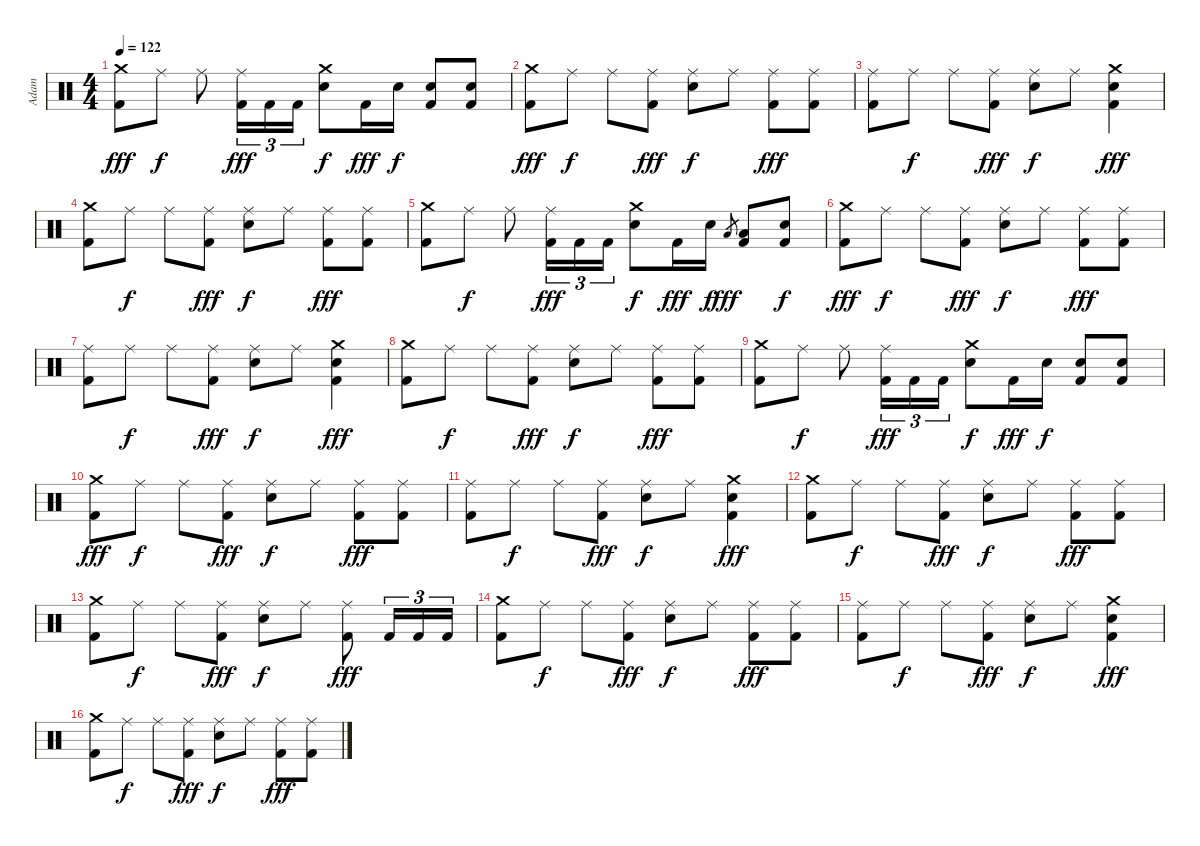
\track ("Adam" "Adam") {instrument percussion}
\staff {score}
\articulation defaults
\ts (4 4)
\tempo 122
\clef neutral
\ks c
("Crash medium (hit)" "Kick (hit) 2").8{dy fff} "Ride (middle)".8{dy f} "Ride (middle)".8 ("Ride (middle)" "Kick (hit) 2").16{tu (3 2) dy fff} "Kick (hit) 2".16{tu (3 2)} "Kick (hit) 2".16{tu (3 2)} ("Crash medium (hit)" "Snare (hit) 2").8{dy f} "Kick (hit) 2".16{dy fff} "Snare (hit) 2".16{dy f} ("Snare (hit) 2" "Kick (hit) 2").8 ("Snare (hit) 2" "Kick (hit) 2").8 |
("Crash medium (hit)" "Kick (hit) 2").8{dy fff} "Ride (middle)".8{dy f} "Ride (middle)".8 ("Ride (middle)" "Kick (hit) 2").8{dy fff} ("Ride (middle)" "Snare (hit) 2").8{dy f} "Ride (middle)".8 ("Ride (middle)" "Kick (hit) 2").8{dy fff} ("Ride (middle)" "Kick (hit) 2").8 |
("Ride (middle)" "Kick (hit) 2").8 "Ride (middle)".8{dy f} "Ride (middle)".8 ("Ride (middle)" "Kick (hit) 2").8{dy fff} ("Ride (middle)" "Snare (hit) 2").8{dy f} "Ride (middle)".8 ("Crash medium (hit)" "Snare (hit) 2" "Kick (hit) 2").4{dy fff} |
("Crash medium (hit)" "Kick (hit) 2").8 "Ride (middle)".8{dy f} "Ride (middle)".8 ("Ride (middle)" "Kick (hit) 2").8{dy fff} ("Ride (middle)" "Snare (hit) 2").8{dy f} "Ride (middle)".8 ("Ride (middle)" "Kick (hit) 2").8{dy fff} ("Ride (middle)" "Kick (hit) 2").8 |
("Crash medium (hit)" "Kick (hit) 2").8 "Ride (middle)".8{dy f} "Ride (middle)".8 ("Ride (middle)" "Kick (hit) 2").16{tu (3 2) dy fff} "Kick (hit) 2".16{tu (3 2)} "Kick (hit) 2".16{tu (3 2)} ("Crash medium (hit)" "Snare (hit) 2").8{dy f} "Kick (hit) 2".16{dy fff} "Snare (hit) 2".16{dy f} "Low Tom (hit)".8{gr dy fff} ("Low Tom (hit)" "Kick (hit) 2").8 ("Snare (hit) 2" "Kick (hit) 2").8{dy f} |
("Crash medium (hit)" "Kick (hit) 2").8{dy fff} "Ride (middle)".8{dy f} "Ride (middle)".8 ("Ride (middle)" "Kick (hit) 2").8{dy fff} ("Ride (middle)" "Snare (hit) 2").8{dy f} "Ride (middle)".8 ("Ride (middle)" "Kick (hit) 2").8{dy fff} ("Ride (middle)" "Kick (hit) 2").8 |
("Ride (middle)" "Kick (hit) 2").8 "Ride (middle)".8{dy f} "Ride (middle)".8 ("Ride (middle)" "Kick (hit) 2").8{dy fff} ("Ride (middle)" "Snare (hit) 2").8{dy f} "Ride (middle)".8 ("Crash medium (hit)" "Snare (hit) 2" "Kick (hit) 2").4{dy fff} |
("Crash medium (hit)" "Kick (hit) 2").8 "Ride (middle)".8{dy f} "Ride (middle)".8 ("Ride (middle)" "Kick (hit) 2").8{dy fff} ("Ride (middle)" "Snare (hit) 2").8{dy f} "Ride (middle)".8 ("Ride (middle)" "Kick (hit) 2").8{dy fff} ("Ride (middle)" "Kick (hit) 2").8 |
("Crash medium (hit)" "Kick (hit) 2").8 "Ride (middle)".8{dy f} "Ride (middle)".8 ("Ride (middle)" "Kick (hit) 2").16{tu (3 2) dy fff} "Kick (hit) 2".16{tu (3 2)} "Kick (hit) 2".16{tu (3 2)} ("Crash medium (hit)" "Snare (hit) 2").8{dy f} "Kick (hit) 2".16{dy fff} "Snare (hit) 2".16{dy f} ("Snare (hit) 2" "Kick (hit) 2").8 ("Snare (hit) 2" "Kick (hit) 2").8 |
("Crash medium (hit)" "Kick (hit) 2").8{dy fff} "Ride (middle)".8{dy f} "Ride (middle)".8 ("Ride (middle)" "Kick (hit) 2").8{dy fff} ("Ride (middle)" "Snare (hit) 2").8{dy f} "Ride (middle)".8 ("Ride (middle)" "Kick (hit) 2").8{dy fff} ("Ride (middle)" "Kick (hit) 2").8 |
("Ride (middle)" "Kick (hit) 2").8 "Ride (middle)".8{dy f} "Ride (middle)".8 ("Ride (middle)" "Kick (hit) 2").8{dy fff} ("Ride (middle)" "Snare (hit) 2").8{dy f} "Ride (middle)".8 ("Crash medium (hit)" "Snare (hit) 2" "Kick (hit) 2").4{dy fff} |
("Crash medium (hit)" "Kick (hit) 2").8 "Ride (middle)".8{dy f} "Ride (middle)".8 ("Ride (middle)" "Kick (hit) 2").8{dy fff} ("Ride (middle)" "Snare (hit) 2").8{dy f} "Ride (middle)".8 ("Ride (middle)" "Kick (hit) 2").8{dy fff} ("Ride (middle)" "Kick (hit) 2").8 |
("Crash medium (hit)" "Kick (hit) 2").8 "Ride (middle)".8{dy f} "Ride (middle)".8 ("Ride (middle)" "Kick (hit) 2").8{dy fff} ("Ride (middle)" "Snare (hit) 2").8{dy f} "Ride (middle)".8 ("Ride (middle)" "Kick (hit) 2").8{dy fff} "Kick (hit) 2".16{tu (3 2)} "Kick (hit) 2".16{tu (3 2)} "Kick (hit) 2".16{tu (3 2)} |
("Crash medium (hit)" "Kick (hit) 2").8 "Ride (middle)".8{dy f} "Ride (middle)".8 ("Ride (middle)" "Kick (hit) 2").8{dy fff} ("Ride (middle)" "Snare (hit) 2").8{dy f} "Ride (middle)".8 ("Ride (middle)" "Kick (hit) 2").8{dy fff} ("Ride (middle)" "Kick (hit) 2").8 |
("Ride (middle)" "Kick (hit) 2").8 "Ride (middle)".8{dy f} "Ride (middle)".8 ("Ride (middle)" "Kick (hit) 2").8{dy fff} ("Ride (middle)" "Snare (hit) 2").8{dy f} "Ride (middle)".8 ("Crash medium (hit)" "Snare (hit) 2" "Kick (hit) 2").4{dy fff} |
("Crash medium (hit)" "Kick (hit) 2").8 "Ride (middle)".8{dy f} "Ride (middle)".8 ("Ride (middle)" "Kick (hit) 2").8{dy fff} ("Ride (middle)" "Snare (hit) 2").8{dy f} "Ride (middle)".8 ("Ride (middle)" "Kick (hit) 2").8{dy fff} ("Ride (middle)" "Kick (hit) 2").8
